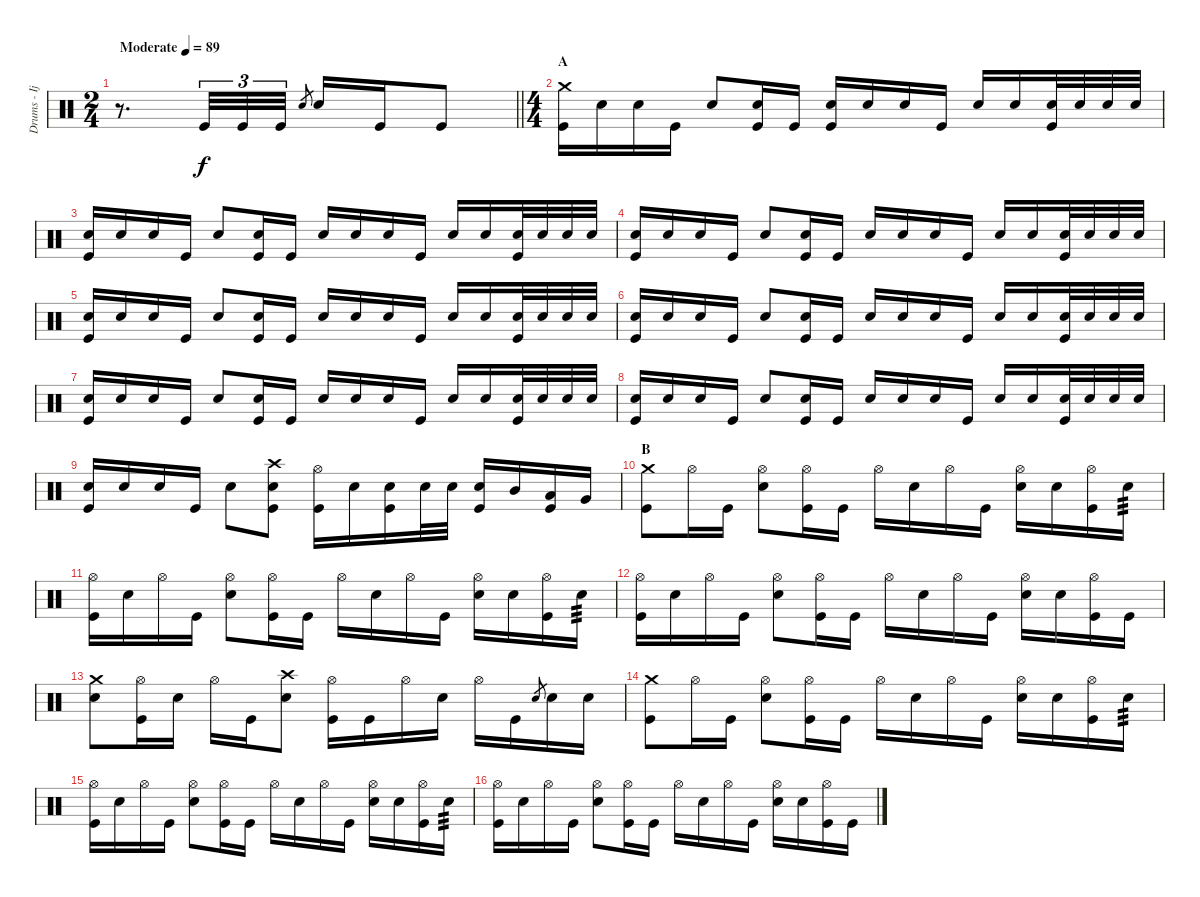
\track ("Drums - Ijichi" "Drums - Ij") {instrument percussion}
\staff {score}
\articulation defaults
\ts (2 4)
\tempo (89 "Moderate")
\clef neutral
\barLineRight lightlight
\ks c
r.8{d dy f} "Kick (hit)".32{tu (3 2)} "Kick (hit)".32{tu (3 2)} "Kick (hit)".32{tu (3 2)} "Electric Snare (hit)".8{gr} "Electric Snare (hit)".16 "Kick (hit)".16 "Kick (hit)".8 |
\ts (4 4)
\section ("" "A")
("Crash medium (hit)" "Kick (hit)").16 "Electric Snare (hit)".16 "Electric Snare (hit)".16 "Kick (hit)".16 "Electric Snare (hit)".8 ("Electric Snare (hit)" "Kick (hit)").16 "Kick (hit)".16 ("Electric Snare (hit)" "Kick (hit)").16 "Electric Snare (hit)".16 "Electric Snare (hit)".16 "Kick (hit)".16 "Electric Snare (hit)".16 "Electric Snare (hit)".16 ("Electric Snare (hit)" "Kick (hit)").32 "Electric Snare (hit)".32 "Electric Snare (hit)".32 "Electric Snare (hit)".32 |
("Electric Snare (hit)" "Kick (hit)").16 "Electric Snare (hit)".16 "Electric Snare (hit)".16 "Kick (hit)".16 "Electric Snare (hit)".8 ("Electric Snare (hit)" "Kick (hit)").16 "Kick (hit)".16 "Electric Snare (hit)".16 "Electric Snare (hit)".16 "Electric Snare (hit)".16 "Kick (hit)".16 "Electric Snare (hit)".16 "Electric Snare (hit)".16 ("Electric Snare (hit)" "Kick (hit)").32 "Electric Snare (hit)".32 "Electric Snare (hit)".32 "Electric Snare (hit)".32 |
("Electric Snare (hit)" "Kick (hit)").16 "Electric Snare (hit)".16 "Electric Snare (hit)".16 "Kick (hit)".16 "Electric Snare (hit)".8 ("Electric Snare (hit)" "Kick (hit)").16 "Kick (hit)".16 "Electric Snare (hit)".16 "Electric Snare (hit)".16 "Electric Snare (hit)".16 "Kick (hit)".16 "Electric Snare (hit)".16 "Electric Snare (hit)".16 ("Electric Snare (hit)" "Kick (hit)").32 "Electric Snare (hit)".32 "Electric Snare (hit)".32 "Electric Snare (hit)".32 |
("Electric Snare (hit)" "Kick (hit)").16 "Electric Snare (hit)".16 "Electric Snare (hit)".16 "Kick (hit)".16 "Electric Snare (hit)".8 ("Electric Snare (hit)" "Kick (hit)").16 "Kick (hit)".16 "Electric Snare (hit)".16 "Electric Snare (hit)".16 "Electric Snare (hit)".16 "Kick (hit)".16 "Electric Snare (hit)".16 "Electric Snare (hit)".16 ("Electric Snare (hit)" "Kick (hit)").32 "Electric Snare (hit)".32 "Electric Snare (hit)".32 "Electric Snare (hit)".32 |
("Electric Snare (hit)" "Kick (hit)").16 "Electric Snare (hit)".16 "Electric Snare (hit)".16 "Kick (hit)".16 "Electric Snare (hit)".8 ("Electric Snare (hit)" "Kick (hit)").16 "Kick (hit)".16 "Electric Snare (hit)".16 "Electric Snare (hit)".16 "Electric Snare (hit)".16 "Kick (hit)".16 "Electric Snare (hit)".16 "Electric Snare (hit)".16 ("Electric Snare (hit)" "Kick (hit)").32 "Electric Snare (hit)".32 "Electric Snare (hit)".32 "Electric Snare (hit)".32 |
("Electric Snare (hit)" "Kick (hit)").16 "Electric Snare (hit)".16 "Electric Snare (hit)".16 "Kick (hit)".16 "Electric Snare (hit)".8 ("Electric Snare (hit)" "Kick (hit)").16 "Kick (hit)".16 "Electric Snare (hit)".16 "Electric Snare (hit)".16 "Electric Snare (hit)".16 "Kick (hit)".16 "Electric Snare (hit)".16 "Electric Snare (hit)".16 ("Electric Snare (hit)" "Kick (hit)").32 "Electric Snare (hit)".32 "Electric Snare (hit)".32 "Electric Snare (hit)".32 |
("Electric Snare (hit)" "Kick (hit)").16 "Electric Snare (hit)".16 "Electric Snare (hit)".16 "Kick (hit)".16 "Electric Snare (hit)".8 ("Electric Snare (hit)" "Kick (hit)").16 "Kick (hit)".16 "Electric Snare (hit)".16 "Electric Snare (hit)".16 "Electric Snare (hit)".16 "Kick (hit)".16 "Electric Snare (hit)".16 "Electric Snare (hit)".16 ("Electric Snare (hit)" "Kick (hit)").32 "Electric Snare (hit)".32 "Electric Snare (hit)".32 "Electric Snare (hit)".32 |
("Electric Snare (hit)" "Kick (hit)").16 "Electric Snare (hit)".16 "Electric Snare (hit)".16 "Kick (hit)".16 "Electric Snare (hit)".8 ("Crash high (hit)" "Electric Snare (hit)" "Kick (hit)").8 ("Hi-Hat (open)" "Kick (hit)").16 "Electric Snare (hit)".16 ("Electric Snare (hit)" "Kick (hit)").16 "Electric Snare (hit)".32 "Electric Snare (hit)".32 ("Electric Snare (hit)" "Kick (hit)").16 "Mid Tom (hit)".16 ("Low Tom (hit)" "Kick (hit)").16 "Very Low Tom (hit)".16 |
\section ("" "B")
("Crash medium (hit)" "Kick (hit)").8 "Hi-Hat (open)".16 "Kick (hit)".16 ("Hi-Hat (open)" "Electric Snare (hit)").8 ("Hi-Hat (open)" "Kick (hit)").16 "Kick (hit)".16 "Hi-Hat (open)".16 "Electric Snare (hit)".16 "Hi-Hat (open)".16 "Kick (hit)".16 ("Hi-Hat (open)" "Electric Snare (hit)").16 "Electric Snare (hit)".16 ("Hi-Hat (open)" "Kick (hit)").16 "Electric Snare (hit)".16{tp 3} |
("Hi-Hat (open)" "Kick (hit)").16 "Electric Snare (hit)".16 "Hi-Hat (open)".16 "Kick (hit)".16 ("Hi-Hat (open)" "Electric Snare (hit)").8 ("Hi-Hat (open)" "Kick (hit)").16 "Kick (hit)".16 "Hi-Hat (open)".16 "Electric Snare (hit)".16 "Hi-Hat (open)".16 "Kick (hit)".16 ("Hi-Hat (open)" "Electric Snare (hit)").16 "Electric Snare (hit)".16 ("Hi-Hat (open)" "Kick (hit)").16 "Electric Snare (hit)".16{tp 3} |
("Hi-Hat (open)" "Kick (hit)").16 "Electric Snare (hit)".16 "Hi-Hat (open)".16 "Kick (hit)".16 ("Hi-Hat (open)" "Electric Snare (hit)").8 ("Hi-Hat (open)" "Kick (hit)").16 "Kick (hit)".16 "Hi-Hat (open)".16 "Electric Snare (hit)".16 "Hi-Hat (open)".16 "Kick (hit)".16 ("Hi-Hat (open)" "Electric Snare (hit)").16 "Electric Snare (hit)".16 ("Hi-Hat (open)" "Kick (hit)").16 "Kick (hit)".16 |
("Crash medium (hit)" "Electric Snare (hit)").8 ("Hi-Hat (open)" "Kick (hit)").16 "Electric Snare (hit)".16 "Hi-Hat (open)".16 "Kick (hit)".16 ("Crash high (hit)" "Electric Snare (hit)").8 ("Hi-Hat (open)" "Kick (hit)").16 "Kick (hit)".16 "Hi-Hat (open)".16 "Electric Snare (hit)".16 "Hi-Hat (open)".16 "Kick (hit)".16 "Electric Snare (hit)".8{gr} "Electric Snare (hit)".16 "Electric Snare (hit)".16 |
("Crash medium (hit)" "Kick (hit)").8 "Hi-Hat (open)".16 "Kick (hit)".16 ("Hi-Hat (open)" "Electric Snare (hit)").8 ("Hi-Hat (open)" "Kick (hit)").16 "Kick (hit)".16 "Hi-Hat (open)".16 "Electric Snare (hit)".16 "Hi-Hat (open)".16 "Kick (hit)".16 ("Hi-Hat (open)" "Electric Snare (hit)").16 "Electric Snare (hit)".16 ("Hi-Hat (open)" "Kick (hit)").16 "Electric Snare (hit)".16{tp 3} |
("Hi-Hat (open)" "Kick (hit)").16 "Electric Snare (hit)".16 "Hi-Hat (open)".16 "Kick (hit)".16 ("Hi-Hat (open)" "Electric Snare (hit)").8 ("Hi-Hat (open)" "Kick (hit)").16 "Kick (hit)".16 "Hi-Hat (open)".16 "Electric Snare (hit)".16 "Hi-Hat (open)".16 "Kick (hit)".16 ("Hi-Hat (open)" "Electric Snare (hit)").16 "Electric Snare (hit)".16 ("Hi-Hat (open)" "Kick (hit)").16 "Electric Snare (hit)".16{tp 3} |
("Hi-Hat (open)" "Kick (hit)").16 "Electric Snare (hit)".16 "Hi-Hat (open)".16 "Kick (hit)".16 ("Hi-Hat (open)" "Electric Snare (hit)").8 ("Hi-Hat (open)" "Kick (hit)").16 "Kick (hit)".16 "Hi-Hat (open)".16 "Electric Snare (hit)".16 "Hi-Hat (open)".16 "Kick (hit)".16 ("Hi-Hat (open)" "Electric Snare (hit)").16 "Electric Snare (hit)".16 ("Hi-Hat (open)" "Kick (hit)").16 "Kick (hit)".16
